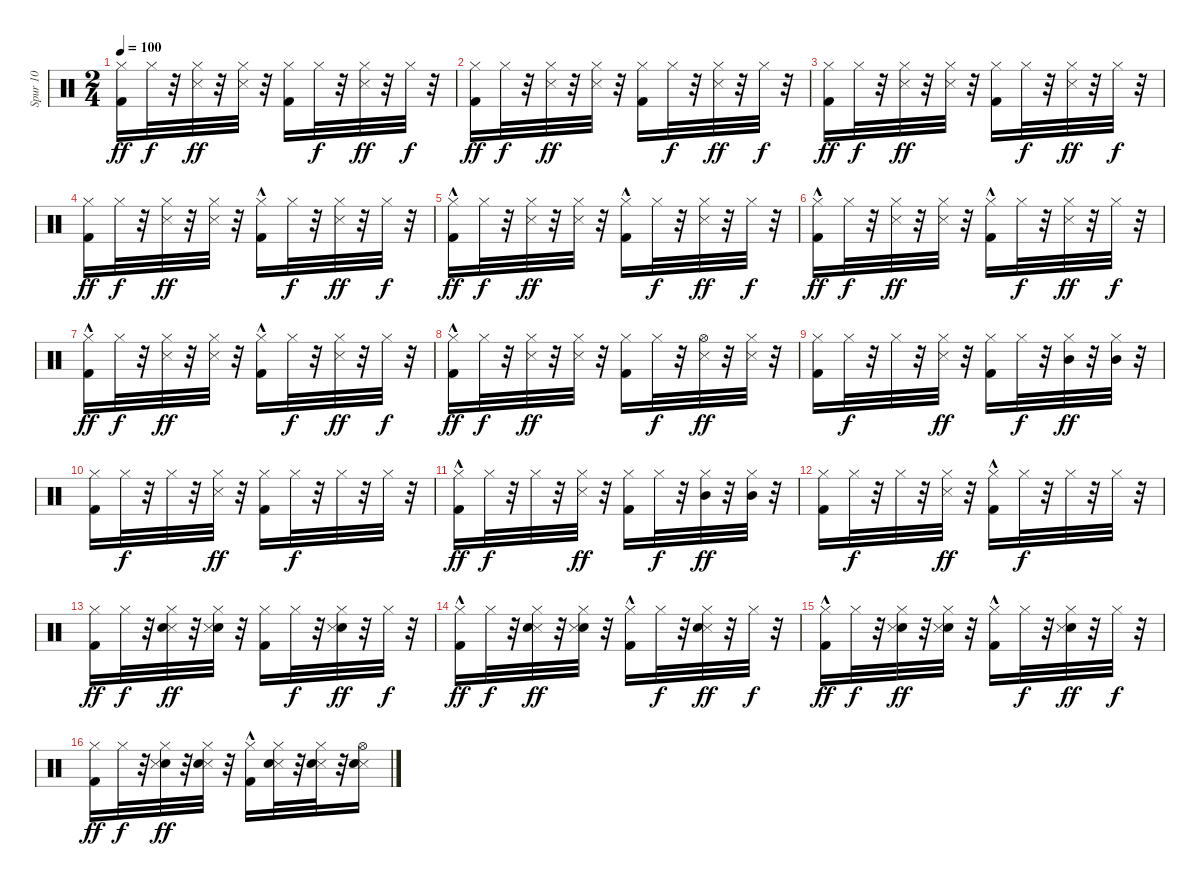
\track ("Spur 10" "Spur 10") {instrument percussion}
\staff {score}
\articulation defaults
\ts (2 4)
\tempo 100
\clef neutral
\ks c
("Hi-Hat (closed)" "Kick (hit) 2").16{dy ff volume 14} "Hi-Hat (closed)".32{dy f} r.32 ("Snare (side stick) 3" "Hi-Hat (closed)").32{dy ff} r.32 ("Snare (side stick) 3" "Hi-Hat (closed)").32 r.32 ("Kick (hit) 2" "Hi-Hat (closed)").16 "Hi-Hat (closed)".32{dy f} r.32 ("Snare (side stick) 3" "Hi-Hat (closed)").32{dy ff} r.32 "Hi-Hat (closed)".32{dy f} r.32 |
("Hi-Hat (closed)" "Kick (hit) 2").16{dy ff} "Hi-Hat (closed)".32{dy f} r.32 ("Hi-Hat (closed)" "Snare (side stick) 3").32{dy ff} r.32 ("Hi-Hat (closed)" "Snare (side stick) 3").32 r.32 ("Kick (hit) 2" "Hi-Hat (closed)").16 "Hi-Hat (closed)".32{dy f} r.32 ("Snare (side stick) 3" "Hi-Hat (closed)").32{dy ff} r.32 "Hi-Hat (closed)".32{dy f} r.32 |
("Kick (hit) 2" "Hi-Hat (closed)").16{dy ff} "Hi-Hat (closed)".32{dy f} r.32 ("Snare (side stick) 3" "Hi-Hat (closed)").32{dy ff} r.32 ("Hi-Hat (closed)" "Snare (side stick) 3").32 r.32 ("Kick (hit) 2" "Hi-Hat (closed)").16 "Hi-Hat (closed)".32{dy f} r.32 ("Snare (side stick) 3" "Hi-Hat (closed)").32{dy ff} r.32 "Hi-Hat (closed)".32{dy f} r.32 |
("Kick (hit) 2" "Hi-Hat (closed)").16{dy ff} "Hi-Hat (closed)".32{dy f} r.32 ("Hi-Hat (closed)" "Snare (side stick) 3").32{dy ff} r.32 ("Hi-Hat (closed)" "Snare (side stick) 3").32 r.32 ("Kick (hit) 2"{hac} "Hi-Hat (closed)").16 "Hi-Hat (closed)".32{dy f} r.32 ("Snare (side stick) 3" "Hi-Hat (closed)").32{dy ff} r.32 "Hi-Hat (closed)".32{dy f} r.32 |
("Kick (hit) 2"{hac} "Hi-Hat (closed)").16{dy ff} "Hi-Hat (closed)".32{dy f} r.32 ("Snare (side stick) 3" "Hi-Hat (closed)").32{dy ff} r.32 ("Snare (side stick) 3" "Hi-Hat (closed)").32 r.32 ("Kick (hit) 2"{hac} "Hi-Hat (closed)").16 "Hi-Hat (closed)".32{dy f} r.32 ("Snare (side stick) 3" "Hi-Hat (closed)").32{dy ff} r.32 "Hi-Hat (closed)".32{dy f} r.32 |
("Kick (hit) 2"{hac} "Hi-Hat (closed)").16{dy ff} "Hi-Hat (closed)".32{dy f} r.32 ("Snare (side stick) 3" "Hi-Hat (closed)").32{dy ff} r.32 ("Snare (side stick) 3" "Hi-Hat (closed)").32 r.32 ("Kick (hit) 2"{hac} "Hi-Hat (closed)").16 "Hi-Hat (closed)".32{dy f} r.32 ("Snare (side stick) 3" "Hi-Hat (closed)").32{dy ff} r.32 "Hi-Hat (closed)".32{dy f} r.32 |
("Kick (hit) 2"{hac} "Hi-Hat (closed)").16{dy ff} "Hi-Hat (closed)".32{dy f} r.32 ("Snare (side stick) 3" "Hi-Hat (closed)").32{dy ff} r.32 ("Snare (side stick) 3" "Hi-Hat (closed)").32 r.32 ("Hi-Hat (closed)" "Kick (hit) 2"{hac}).16 "Hi-Hat (closed)".32{dy f} r.32 ("Snare (side stick) 3" "Hi-Hat (closed)").32{dy ff} r.32 "Hi-Hat (closed)".32{dy f} r.32 |
("Hi-Hat (closed)" "Kick (hit) 2"{hac}).16{dy ff} "Hi-Hat (closed)".32{dy f} r.32 ("Snare (side stick) 3" "Hi-Hat (closed)").32{dy ff} r.32 ("Hi-Hat (closed)" "Snare (side stick) 3").32 r.32 ("Hi-Hat (closed)" "Kick (hit) 2").16 "Hi-Hat (closed)".32{dy f} r.32 ("Snare (side stick) 3" "Hi-Hat (open)").32{dy ff} r.32 ("Snare (side stick) 3" "Hi-Hat (closed)").32 r.32 |
("Kick (hit) 2" "Hi-Hat (closed)").16{volume 14} "Hi-Hat (closed)".32{dy f} r.32 "Hi-Hat (closed)".32 r.32 ("Snare (side stick) 3" "Hi-Hat (closed)").32{dy ff} r.32 ("Kick (hit) 2" "Hi-Hat (closed)").16 "Hi-Hat (closed)".32{dy f} r.32 ("Hi-Hat (closed)" "Mid Tom (hit)").32{dy ff} r.32 ("Hi-Hat (closed)" "Mid Tom (hit)").32 r.32 |
("Kick (hit) 2" "Hi-Hat (closed)").16 "Hi-Hat (closed)".32{dy f} r.32 "Hi-Hat (closed)".32 r.32 ("Snare (side stick) 3" "Hi-Hat (closed)").32{dy ff} r.32 ("Kick (hit) 2" "Hi-Hat (closed)").16 "Hi-Hat (closed)".32{dy f} r.32 "Hi-Hat (closed)".32 r.32 "Hi-Hat (closed)".32 r.32 |
("Kick (hit) 2"{hac} "Hi-Hat (closed)").16{dy ff} "Hi-Hat (closed)".32{dy f} r.32 "Hi-Hat (closed)".32 r.32 ("Snare (side stick) 3" "Hi-Hat (closed)").32{dy ff} r.32 ("Kick (hit) 2" "Hi-Hat (closed)").16 "Hi-Hat (closed)".32{dy f} r.32 ("Hi-Hat (closed)" "Mid Tom (hit)").32{dy ff} r.32 ("Hi-Hat (closed)" "Mid Tom (hit)").32 r.32 |
("Kick (hit) 2" "Hi-Hat (closed)").16 "Hi-Hat (closed)".32{dy f} r.32 "Hi-Hat (closed)".32 r.32 ("Snare (side stick) 3" "Hi-Hat (closed)").32{dy ff} r.32 ("Kick (hit) 2"{hac} "Hi-Hat (closed)").16 "Hi-Hat (closed)".32{dy f} r.32 "Hi-Hat (closed)".32 r.32 "Hi-Hat (closed)".32 r.32 |
("Hi-Hat (closed)" "Kick (hit) 2").16{dy ff} "Hi-Hat (closed)".32{dy f} r.32 ("Snare (side stick) 3" "Electric Snare (hit)" "Hi-Hat (closed)").32{dy ff} r.32 ("Hi-Hat (closed)" "Electric Snare (hit)" "Snare (side stick) 3").32 r.32 ("Hi-Hat (closed)" "Kick (hit) 2").16 "Hi-Hat (closed)".32{dy f} r.32 ("Hi-Hat (closed)" "Electric Snare (hit)" "Snare (side stick) 3").32{dy ff} r.32 "Hi-Hat (closed)".32{dy f} r.32 |
("Hi-Hat (closed)" "Kick (hit) 2"{hac}).16{dy ff} "Hi-Hat (closed)".32{dy f} r.32 ("Hi-Hat (closed)" "Snare (side stick) 3" "Electric Snare (hit)").32{dy ff} r.32 ("Hi-Hat (closed)" "Electric Snare (hit)" "Snare (side stick) 3").32 r.32 ("Hi-Hat (closed)" "Kick (hit) 2"{hac}).16 "Hi-Hat (closed)".32{dy f} r.32 ("Snare (side stick) 3" "Electric Snare (hit)" "Hi-Hat (closed)").32{dy ff} r.32 "Hi-Hat (closed)".32{dy f} r.32 |
("Hi-Hat (closed)" "Kick (hit) 2"{hac}).16{dy ff} "Hi-Hat (closed)".32{dy f} r.32 ("Electric Snare (hit)" "Hi-Hat (closed)" "Snare (side stick) 3").32{dy ff} r.32 ("Electric Snare (hit)" "Hi-Hat (closed)" "Snare (side stick) 3").32 r.32 ("Hi-Hat (closed)" "Kick (hit) 2"{hac}).16 "Hi-Hat (closed)".32{dy f} r.32 ("Electric Snare (hit)" "Snare (side stick) 3" "Hi-Hat (closed)").32{dy ff} r.32 "Hi-Hat (closed)".32{dy f} r.32 |
("Hi-Hat (closed)" "Kick (hit) 2").16{dy ff} "Hi-Hat (closed)".32{dy f} r.32 ("Electric Snare (hit)" "Snare (side stick) 3" "Hi-Hat (closed)").32{dy ff} r.32 ("Snare (side stick) 3" "Electric Snare (hit)" "Hi-Hat (closed)").32 r.32 ("Kick (hit) 2"{hac} "Hi-Hat (closed)").16 ("Snare (side stick) 3" "Electric Snare (hit)" "Hi-Hat (closed)").32 r.32 ("Snare (side stick) 3" "Electric Snare (hit)" "Hi-Hat (closed)").32 r.32 ("Snare (side stick) 3" "Electric Snare (hit)" "Hi-Hat (open)").16
